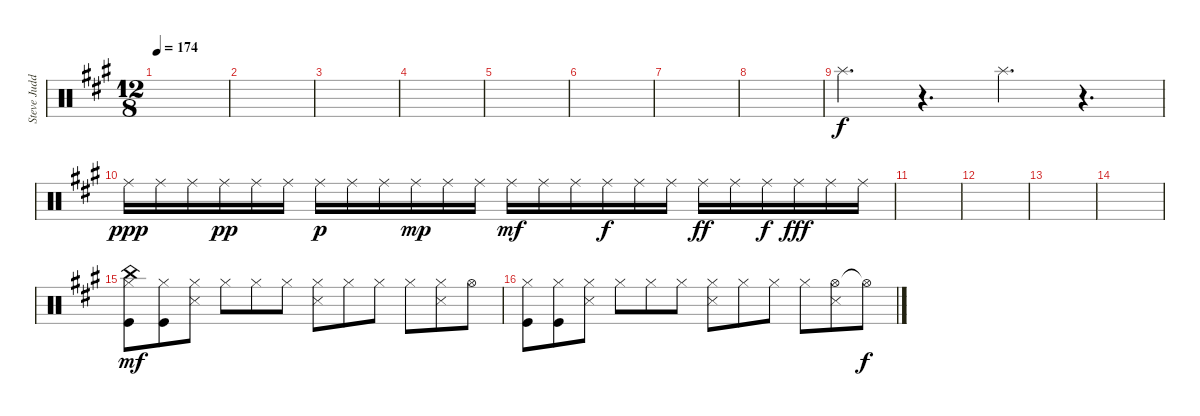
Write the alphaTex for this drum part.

\track ("Steve Judd (Drums)" "Steve Judd") {instrument percussion}
\staff {score}
\articulation defaults
\ts (12 8)
\tempo 174
\clef neutral
\ks a
|
|
|
|
|
|
|
|
"Splash (hit)".4{d} r.4{d} "Splash (hit)".4{d} r.4{d} |
"Ride (middle)".16{dy ppp} "Ride (middle)".16 "Ride (middle)".16 "Ride (middle)".16{dy pp} "Ride (middle)".16 "Ride (middle)".16 "Ride (middle)".16{dy p} "Ride (middle)".16 "Ride (middle)".16 "Ride (middle)".16{dy mp} "Ride (middle)".16 "Ride (middle)".16 "Ride (middle)".16{dy mf} "Ride (middle)".16 "Ride (middle)".16 "Ride (middle)".16{dy f} "Ride (middle)".16 "Ride (middle)".16 "Ride (middle)".16{dy ff} "Ride (middle)".16 "Ride (middle)".16{dy f} "Ride (middle)".16{dy fff} "Ride (middle)".16 "Ride (middle)".16 |
|
|
|
|
("China (hit)" "Hi-Hat (closed)" "Kick (hit)").8{dy mf} ("Hi-Hat (closed)" "Kick (hit)").8 ("Hi-Hat (closed)" "Snare (side stick) 3").8 "Hi-Hat (closed)".8 "Hi-Hat (closed)".8 "Hi-Hat (closed)".8 ("Hi-Hat (closed)" "Snare (side stick) 3").8 "Hi-Hat (closed)".8 "Hi-Hat (closed)".8 "Hi-Hat (closed)".8 ("Hi-Hat (closed)" "Snare (side stick) 3").8 "Hi-Hat (open)".8 |
("Hi-Hat (closed)" "Kick (hit)").8 ("Hi-Hat (closed)" "Kick (hit)").8 ("Hi-Hat (closed)" "Snare (side stick) 3").8 "Hi-Hat (closed)".8 "Hi-Hat (closed)".8 "Hi-Hat (closed)".8 ("Hi-Hat (closed)" "Snare (side stick) 3").8 "Hi-Hat (closed)".8 "Hi-Hat (closed)".8 "Hi-Hat (closed)".8 ("Hi-Hat (open)" "Snare (side stick) 3").8 "Hi-Hat (open)"{t}.8{dy f}
